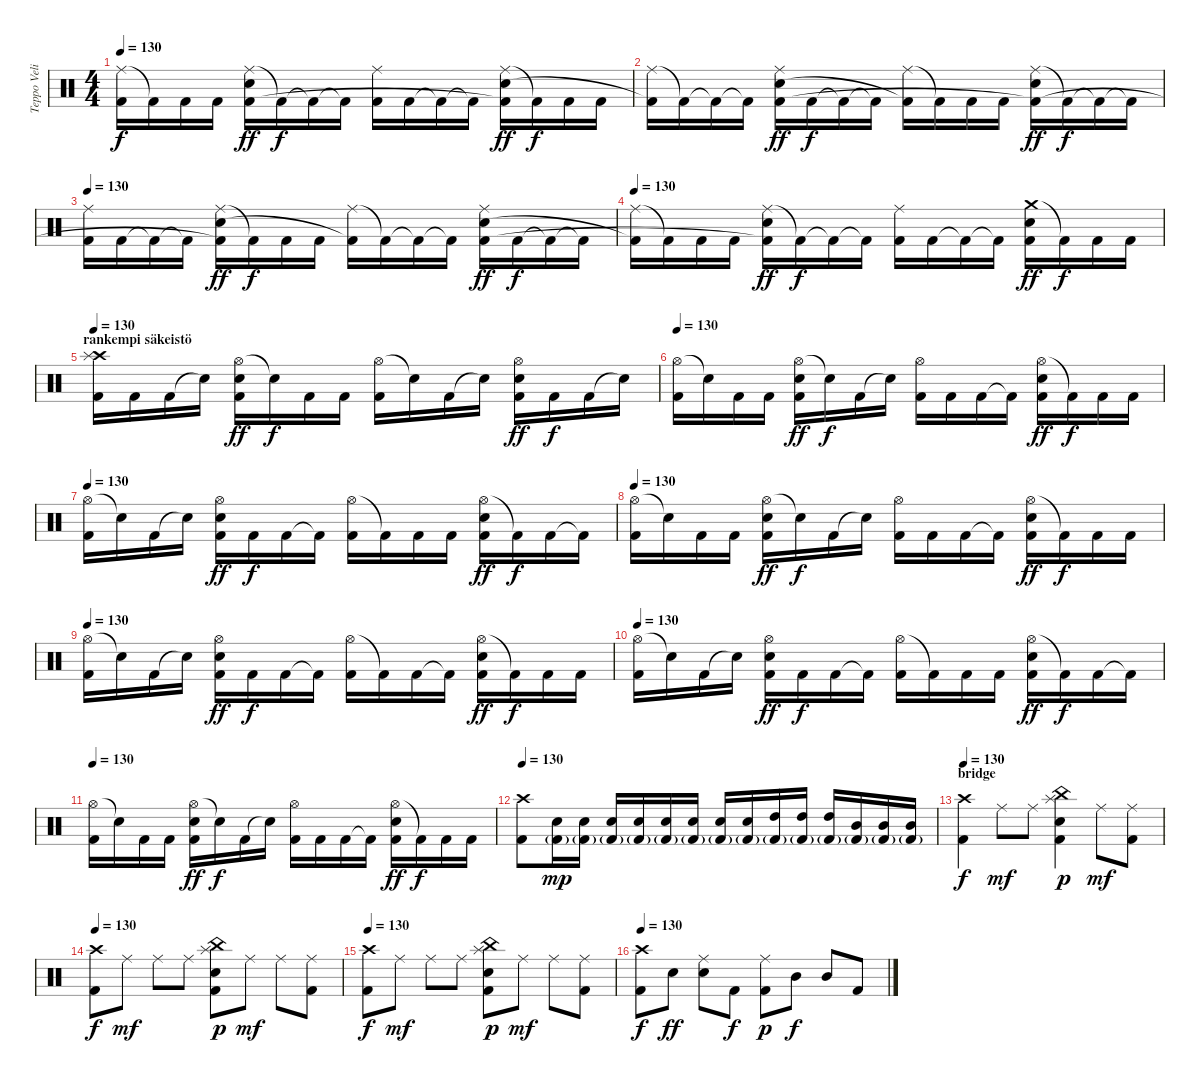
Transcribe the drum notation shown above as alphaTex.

\track ("Teppo Velin" "Teppo Veli") {instrument percussion}
\staff {score}
\articulation defaults
\ts (4 4)
\tempo 130
\clef neutral
\ks c
("Ride (middle)" "Kick (hit) 2"{t}).16{dy f} "Kick (hit) 2"{t}.16 "Kick (hit) 2".16 "Kick (hit) 2".16 ("Ride (middle)" "Electric Snare (hit)" "Kick (hit) 2"{t}).16{dy ff} "Kick (hit) 2"{t}.16{dy f} "Kick (hit) 2"{t}.16 "Kick (hit) 2"{t}.16 ("Ride (middle)" "Kick (hit) 2").16 "Kick (hit) 2".16 "Kick (hit) 2"{t}.16 "Kick (hit) 2"{t}.16 ("Ride (middle)" "Electric Snare (hit)" "Kick (hit) 2"{t}).16{dy ff} "Kick (hit) 2"{t}.16{dy f} "Kick (hit) 2".16 "Kick (hit) 2".16 |
("Ride (middle)" "Kick (hit) 2"{t}).16 "Kick (hit) 2"{t}.16 "Kick (hit) 2"{t}.16 "Kick (hit) 2"{t}.16 ("Ride (middle)" "Electric Snare (hit)" "Kick (hit) 2").16{dy ff} "Kick (hit) 2".16{dy f} "Kick (hit) 2"{t}.16 "Kick (hit) 2"{t}.16 ("Ride (middle)" "Kick (hit) 2"{t}).16 "Kick (hit) 2"{t}.16 "Kick (hit) 2".16 "Kick (hit) 2".16 ("Ride (middle)" "Electric Snare (hit)" "Kick (hit) 2"{t}).16{dy ff} "Kick (hit) 2"{t}.16{dy f} "Kick (hit) 2"{t}.16 "Kick (hit) 2"{t}.16 |
\tempo 130
("Ride (middle)" "Kick (hit) 2").16 "Kick (hit) 2".16 "Kick (hit) 2"{t}.16 "Kick (hit) 2"{t}.16 ("Ride (middle)" "Electric Snare (hit)" "Kick (hit) 2"{t}).16{dy ff} "Kick (hit) 2"{t}.16{dy f} "Kick (hit) 2".16 "Kick (hit) 2".16 ("Ride (middle)" "Kick (hit) 2"{t}).16 "Kick (hit) 2"{t}.16 "Kick (hit) 2"{t}.16 "Kick (hit) 2"{t}.16 ("Ride (middle)" "Electric Snare (hit)" "Kick (hit) 2").16{dy ff} "Kick (hit) 2".16{dy f} "Kick (hit) 2"{t}.16 "Kick (hit) 2"{t}.16 |
\tempo 130
("Ride (middle)" "Kick (hit) 2"{t}).16 "Kick (hit) 2"{t}.16 "Kick (hit) 2".16 "Kick (hit) 2".16 ("Ride (middle)" "Electric Snare (hit)" "Kick (hit) 2"{t}).16{dy ff} "Kick (hit) 2"{t}.16{dy f} "Kick (hit) 2"{t}.16 "Kick (hit) 2"{t}.16 ("Ride (middle)" "Kick (hit) 2").16 "Kick (hit) 2".16 "Kick (hit) 2"{t}.16 "Kick (hit) 2"{t}.16 ("Crash medium (hit)" "Electric Snare (hit)" "Kick (hit) 2").16{dy ff} "Kick (hit) 2"{t}.16{dy f} "Kick (hit) 2".16 "Kick (hit) 2".16 |
\section ("" "rankempi säkeistö")
\tempo 130
("Crash high (hit)" "Splash (hit)" "Kick (hit) 2").16 "Kick (hit) 2".16 "Kick (hit) 2".16 "Snare (hit)"{t}.16 ("Hi-Hat (open)" "Electric Snare (hit)" "Kick (hit) 2").16{dy ff} "Snare (hit)"{t}.16{dy f} "Kick (hit) 2".16 "Kick (hit) 2".16 ("Hi-Hat (open)" "Kick (hit) 2").16 "Snare (hit)"{t}.16 "Kick (hit) 2".16 "Snare (hit)"{t}.16 ("Hi-Hat (open)" "Electric Snare (hit)" "Kick (hit) 2").16{dy ff} "Kick (hit) 2".16{dy f} "Kick (hit) 2".16 "Snare (hit)"{t}.16 |
\tempo 130
("Hi-Hat (open)" "Kick (hit) 2").16 "Snare (hit)"{t}.16 "Kick (hit) 2".16 "Kick (hit) 2".16 ("Hi-Hat (open)" "Electric Snare (hit)" "Kick (hit) 2").16{dy ff} "Snare (hit)"{t}.16{dy f} "Kick (hit) 2".16 "Snare (hit)"{t}.16 ("Hi-Hat (open)" "Kick (hit) 2").16 "Kick (hit) 2".16 "Kick (hit) 2".16 "Kick (hit) 2"{t}.16 ("Hi-Hat (open)" "Electric Snare (hit)" "Kick (hit) 2").16{dy ff} "Kick (hit) 2"{t}.16{dy f} "Kick (hit) 2".16 "Kick (hit) 2".16 |
\tempo 130
("Hi-Hat (open)" "Kick (hit) 2").16 "Snare (hit)"{t}.16 "Kick (hit) 2".16 "Snare (hit)"{t}.16 ("Hi-Hat (open)" "Electric Snare (hit)" "Kick (hit) 2").16{dy ff} "Kick (hit) 2".16{dy f} "Kick (hit) 2".16 "Kick (hit) 2"{t}.16 ("Hi-Hat (open)" "Kick (hit) 2").16 "Kick (hit) 2"{t}.16 "Kick (hit) 2".16 "Kick (hit) 2".16 ("Hi-Hat (open)" "Electric Snare (hit)" "Kick (hit) 2").16{dy ff} "Kick (hit) 2"{t}.16{dy f} "Kick (hit) 2".16 "Kick (hit) 2"{t}.16 |
\tempo 130
("Hi-Hat (open)" "Kick (hit) 2").16 "Snare (hit)"{t}.16 "Kick (hit) 2".16 "Kick (hit) 2".16 ("Hi-Hat (open)" "Electric Snare (hit)" "Kick (hit) 2").16{dy ff} "Snare (hit)"{t}.16{dy f} "Kick (hit) 2".16 "Snare (hit)"{t}.16 ("Hi-Hat (open)" "Kick (hit) 2").16 "Kick (hit) 2".16 "Kick (hit) 2".16 "Kick (hit) 2"{t}.16 ("Hi-Hat (open)" "Electric Snare (hit)" "Kick (hit) 2").16{dy ff} "Kick (hit) 2"{t}.16{dy f} "Kick (hit) 2".16 "Kick (hit) 2".16 |
\tempo 130
("Hi-Hat (open)" "Kick (hit) 2").16 "Snare (hit)"{t}.16 "Kick (hit) 2".16 "Snare (hit)"{t}.16 ("Hi-Hat (open)" "Electric Snare (hit)" "Kick (hit) 2").16{dy ff} "Kick (hit) 2".16{dy f} "Kick (hit) 2".16 "Kick (hit) 2"{t}.16 ("Hi-Hat (open)" "Kick (hit) 2").16 "Kick (hit) 2"{t}.16 "Kick (hit) 2".16 "Kick (hit) 2"{t}.16 ("Hi-Hat (open)" "Electric Snare (hit)" "Kick (hit) 2").16{dy ff} "Kick (hit) 2"{t}.16{dy f} "Kick (hit) 2".16 "Kick (hit) 2".16 |
\tempo 130
("Hi-Hat (open)" "Kick (hit) 2").16 "Snare (hit)"{t}.16 "Kick (hit) 2".16 "Snare (hit)"{t}.16 ("Hi-Hat (open)" "Electric Snare (hit)" "Kick (hit) 2").16{dy ff} "Kick (hit) 2".16{dy f} "Kick (hit) 2".16 "Kick (hit) 2"{t}.16 ("Hi-Hat (open)" "Kick (hit) 2").16 "Kick (hit) 2"{t}.16 "Kick (hit) 2".16 "Kick (hit) 2".16 ("Hi-Hat (open)" "Electric Snare (hit)" "Kick (hit) 2").16{dy ff} "Kick (hit) 2"{t}.16{dy f} "Kick (hit) 2".16 "Kick (hit) 2"{t}.16 |
\tempo 130
("Hi-Hat (open)" "Kick (hit) 2").16 "Snare (hit)"{t}.16 "Kick (hit) 2".16 "Kick (hit) 2".16 ("Hi-Hat (open)" "Electric Snare (hit)" "Kick (hit) 2").16{dy ff} "Snare (hit)"{t}.16{dy f} "Kick (hit) 2".16 "Snare (hit)"{t}.16 ("Hi-Hat (open)" "Kick (hit) 2").16 "Kick (hit) 2".16 "Kick (hit) 2".16 "Kick (hit) 2"{t}.16 ("Hi-Hat (open)" "Electric Snare (hit)" "Kick (hit) 2").16{dy ff} "Kick (hit) 2"{t}.16{dy f} "Kick (hit) 2".16 "Kick (hit) 2".16 |
\tempo 130
("Crash high (hit)" "Kick (hit) 2").8 ("Electric Snare (hit)" "Kick (hit) 2"{g}).16{dy mp} ("Electric Snare (hit)" "Kick (hit) 2"{g}).16 ("Electric Snare (hit)" "Kick (hit) 2"{g}).16 ("Electric Snare (hit)" "Kick (hit) 2"{g}).16 ("Electric Snare (hit)" "Kick (hit) 2"{g}).16 ("Electric Snare (hit)" "Kick (hit) 2"{g}).16 ("Electric Snare (hit)" "Kick (hit) 2"{g}).16 ("Electric Snare (hit)" "Kick (hit) 2"{g}).16 ("High Tom (hit)" "Kick (hit) 2"{g}).16 ("High Tom (hit)" "Kick (hit) 2"{g}).16 ("High Tom (hit)" "Kick (hit) 2"{g}).16 ("Mid Tom (hit)" "Kick (hit) 2"{g}).16 ("Mid Tom (hit)" "Kick (hit) 2"{g}).16 ("Mid Tom (hit)" "Kick (hit) 2"{g}).16 |
\section ("" "bridge")
\tempo 130
("Crash high (hit)" "Kick (hit) 2").4{dy f} "Ride (middle)".8{dy mf} "Ride (middle)".8 ("Splash (hit)" "China (hit)" "Electric Snare (hit)" "Kick (hit) 2").4{dy p} "Ride (middle)".8{dy mf} ("Ride (middle)" "Kick (hit) 2").8 |
\tempo 130
("Crash high (hit)" "Kick (hit) 2").8{dy f} "Ride (middle)".8{dy mf} "Ride (middle)".8 "Ride (middle)".8 ("Splash (hit)" "China (hit)" "Electric Snare (hit)" "Kick (hit) 2").8{dy p} "Ride (middle)".8{dy mf} "Ride (middle)".8 ("Ride (middle)" "Kick (hit) 2").8 |
\tempo 130
("Crash high (hit)" "Kick (hit) 2").8{dy f} "Ride (middle)".8{dy mf} "Ride (middle)".8 "Ride (middle)".8 ("Splash (hit)" "China (hit)" "Electric Snare (hit)" "Kick (hit) 2").8{dy p} "Ride (middle)".8{dy mf} "Ride (middle)".8 ("Ride (middle)" "Kick (hit) 2").8 |
\tempo 130
("Crash high (hit)" "Kick (hit) 2").8{dy f} "Electric Snare (hit)".8{dy ff} ("Ride (middle)" "Electric Snare (hit)").8 "Kick (hit) 2".8{dy f} ("Ride (middle)" "Kick (hit) 2").8{dy p} "Mid Tom (hit)".8{dy f} "Mid Tom (hit)".8 "Kick (hit) 2".8
